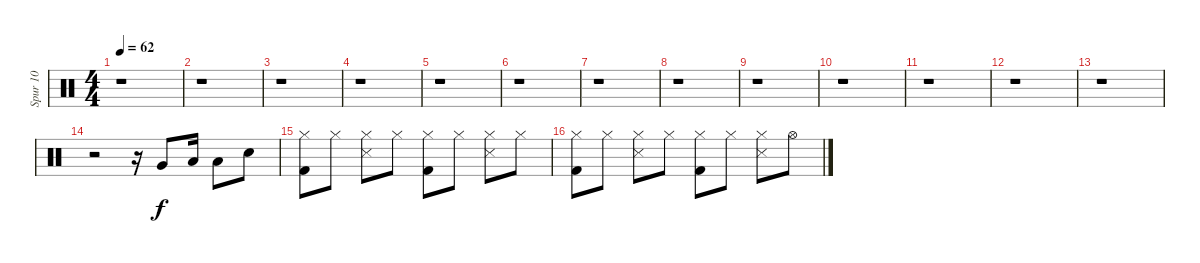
\track ("Spur 10" "Spur 10") {instrument percussion}
\staff {score}
\articulation defaults
\ts (4 4)
\tempo 62
\clef neutral
\ks c
r.1{dy f} |
r.1 |
r.1 |
r.1 |
r.1 |
r.1 |
r.1 |
r.1 |
r.1 |
r.1 |
r.1 |
r.1 |
r.1 |
r.2 r.16 "Very Low Tom (hit)".8 "Low Floor Tom (hit)".16 "Low Floor Tom (hit)".8 "Snare (hit) 2".8 |
("Kick (hit) 2" "Hi-Hat (closed)").8 "Hi-Hat (closed)".8 ("Snare (side stick) 3" "Hi-Hat (closed)").8 "Hi-Hat (closed)".8 ("Kick (hit) 2" "Hi-Hat (closed)").8 "Hi-Hat (closed)".8 ("Snare (side stick) 3" "Hi-Hat (closed)").8 "Hi-Hat (closed)".8 |
("Kick (hit) 2" "Hi-Hat (closed)").8 "Hi-Hat (closed)".8 ("Snare (side stick) 3" "Hi-Hat (closed)").8 "Hi-Hat (closed)".8 ("Kick (hit) 2" "Hi-Hat (closed)").8 "Hi-Hat (closed)".8 ("Snare (side stick) 3" "Hi-Hat (closed)").8 "Hi-Hat (open)".8
